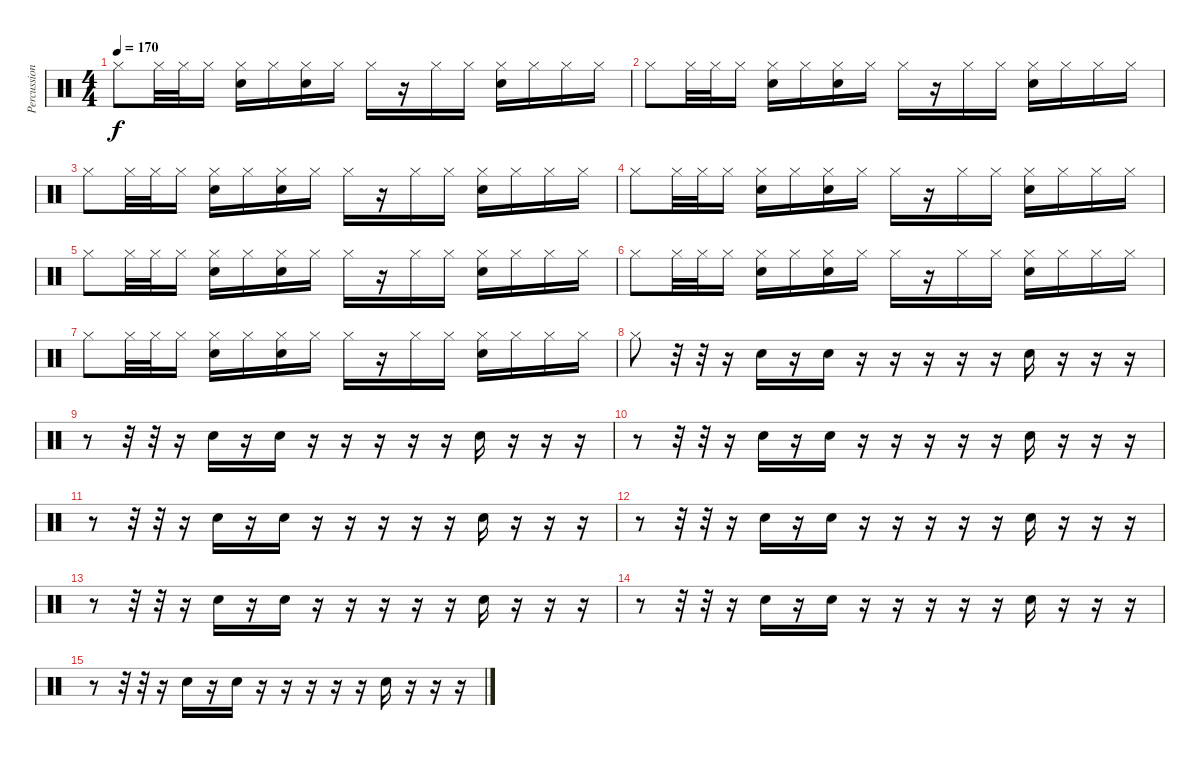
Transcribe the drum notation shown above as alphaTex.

\track ("Percussion" "Percussion") {instrument percussion}
\staff {score}
\articulation defaults
\ts (4 4)
\tempo 170
\clef neutral
\ks c "Hi-Hat (closed)".8{dy f} "Hi-Hat (closed)".32 "Hi-Hat (closed)".32 "Hi-Hat (closed)".16
("Hi-Hat (closed)" "Hand Clap (hit)").16 "Hi-Hat (closed)".16 ("Hi-Hat (closed)" "Hand Clap (hit)").16 "Hi-Hat (closed)".16 "Hi-Hat (closed)".16 r.16 "Hi-Hat (closed)".16 "Hi-Hat (closed)".16 ("Hi-Hat (closed)" "Hand Clap (hit)").16 "Hi-Hat (closed)".16 "Hi-Hat (closed)".16 "Hi-Hat (closed)".16 |
"Hi-Hat (closed)".8 "Hi-Hat (closed)".32 "Hi-Hat (closed)".32 "Hi-Hat (closed)".16 ("Hi-Hat (closed)" "Hand Clap (hit)").16 "Hi-Hat (closed)".16 ("Hi-Hat (closed)" "Hand Clap (hit)").16 "Hi-Hat (closed)".16 "Hi-Hat (closed)".16 r.16 "Hi-Hat (closed)".16 "Hi-Hat (closed)".16 ("Hi-Hat (closed)" "Hand Clap (hit)").16 "Hi-Hat (closed)".16 "Hi-Hat (closed)".16 "Hi-Hat (closed)".16 |
"Hi-Hat (closed)".8 "Hi-Hat (closed)".32 "Hi-Hat (closed)".32 "Hi-Hat (closed)".16 ("Hi-Hat (closed)" "Hand Clap (hit)").16 "Hi-Hat (closed)".16 ("Hi-Hat (closed)" "Hand Clap (hit)").16 "Hi-Hat (closed)".16 "Hi-Hat (closed)".16 r.16 "Hi-Hat (closed)".16 "Hi-Hat (closed)".16 ("Hi-Hat (closed)" "Hand Clap (hit)").16 "Hi-Hat (closed)".16 "Hi-Hat (closed)".16 "Hi-Hat (closed)".16 |
"Hi-Hat (closed)".8 "Hi-Hat (closed)".32 "Hi-Hat (closed)".32 "Hi-Hat (closed)".16 ("Hi-Hat (closed)" "Hand Clap (hit)").16 "Hi-Hat (closed)".16 ("Hi-Hat (closed)" "Hand Clap (hit)").16 "Hi-Hat (closed)".16 "Hi-Hat (closed)".16 r.16 "Hi-Hat (closed)".16 "Hi-Hat (closed)".16 ("Hi-Hat (closed)" "Hand Clap (hit)").16 "Hi-Hat (closed)".16 "Hi-Hat (closed)".16 "Hi-Hat (closed)".16 |
"Hi-Hat (closed)".8 "Hi-Hat (closed)".32 "Hi-Hat (closed)".32 "Hi-Hat (closed)".16 ("Hi-Hat (closed)" "Hand Clap (hit)").16 "Hi-Hat (closed)".16 ("Hi-Hat (closed)" "Hand Clap (hit)").16 "Hi-Hat (closed)".16 "Hi-Hat (closed)".16 r.16 "Hi-Hat (closed)".16 "Hi-Hat (closed)".16 ("Hi-Hat (closed)" "Hand Clap (hit)").16 "Hi-Hat (closed)".16 "Hi-Hat (closed)".16 "Hi-Hat (closed)".16 |
"Hi-Hat (closed)".8 "Hi-Hat (closed)".32 "Hi-Hat (closed)".32 "Hi-Hat (closed)".16 ("Hi-Hat (closed)" "Hand Clap (hit)").16 "Hi-Hat (closed)".16 ("Hi-Hat (closed)" "Hand Clap (hit)").16 "Hi-Hat (closed)".16 "Hi-Hat (closed)".16 r.16 "Hi-Hat (closed)".16 "Hi-Hat (closed)".16 ("Hi-Hat (closed)" "Hand Clap (hit)").16 "Hi-Hat (closed)".16 "Hi-Hat (closed)".16 "Hi-Hat (closed)".16 |
"Hi-Hat (closed)".8 "Hi-Hat (closed)".32 "Hi-Hat (closed)".32 "Hi-Hat (closed)".16 ("Hi-Hat (closed)" "Hand Clap (hit)").16 "Hi-Hat (closed)".16 ("Hi-Hat (closed)" "Hand Clap (hit)").16 "Hi-Hat (closed)".16 "Hi-Hat (closed)".16 r.16 "Hi-Hat (closed)".16 "Hi-Hat (closed)".16 ("Hi-Hat (closed)" "Hand Clap (hit)").16 "Hi-Hat (closed)".16 "Hi-Hat (closed)".16 "Hi-Hat (closed)".16 |
"Hi-Hat (closed)".8 r.32 r.32 r.16 "Hand Clap (hit)".16 r.16 "Hand Clap (hit)".16 r.16 r.16 r.16 r.16 r.16 "Hand Clap (hit)".16 r.16 r.16 r.16 |
r.8 r.32 r.32 r.16 "Hand Clap (hit)".16 r.16 "Hand Clap (hit)".16 r.16 r.16 r.16 r.16 r.16 "Hand Clap (hit)".16 r.16 r.16 r.16 |
r.8 r.32 r.32 r.16 "Hand Clap (hit)".16 r.16 "Hand Clap (hit)".16 r.16 r.16 r.16 r.16 r.16 "Hand Clap (hit)".16 r.16 r.16 r.16 |
r.8 r.32 r.32 r.16 "Hand Clap (hit)".16 r.16 "Hand Clap (hit)".16 r.16 r.16 r.16 r.16 r.16 "Hand Clap (hit)".16 r.16 r.16 r.16 |
r.8 r.32 r.32 r.16 "Hand Clap (hit)".16 r.16 "Hand Clap (hit)".16 r.16 r.16 r.16 r.16 r.16 "Hand Clap (hit)".16 r.16 r.16 r.16 |
r.8 r.32 r.32 r.16 "Hand Clap (hit)".16 r.16 "Hand Clap (hit)".16 r.16 r.16 r.16 r.16 r.16 "Hand Clap (hit)".16 r.16 r.16 r.16 |
r.8 r.32 r.32 r.16 "Hand Clap (hit)".16 r.16 "Hand Clap (hit)".16 r.16 r.16 r.16 r.16 r.16 "Hand Clap (hit)".16 r.16 r.16 r.16 |
r.8 r.32 r.32 r.16 "Hand Clap (hit)".16 r.16 "Hand Clap (hit)".16 r.16 r.16 r.16 r.16 r.16 "Hand Clap (hit)".16 r.16 r.16 r.16
